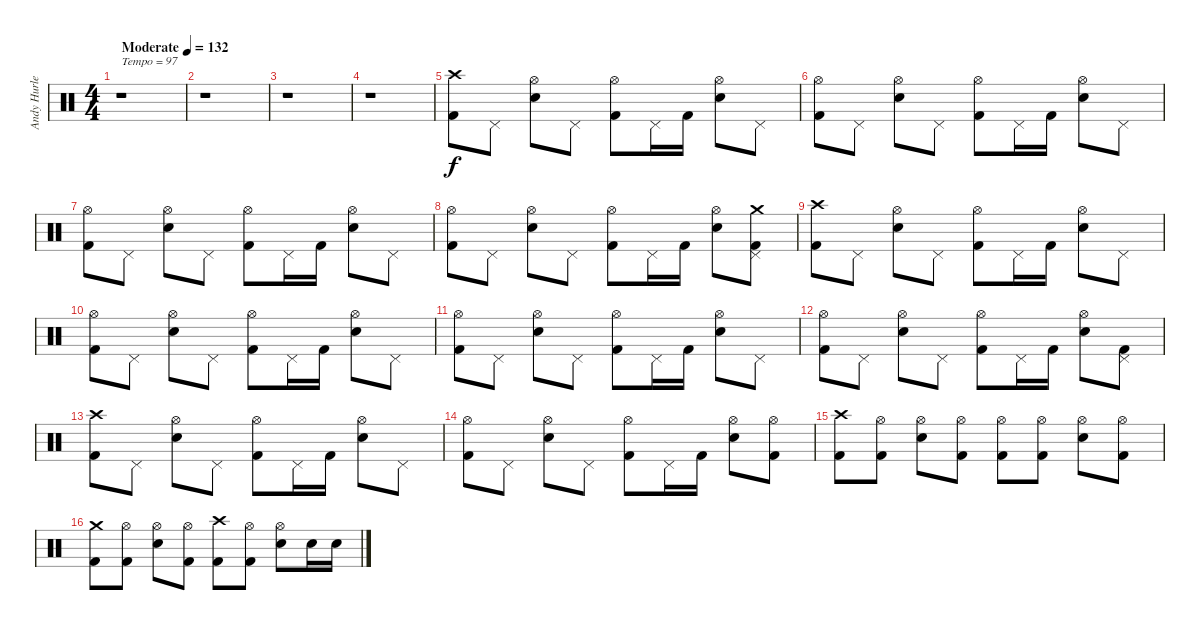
\track ("Andy Hurley" "Andy Hurle") {instrument percussion}
\staff {score}
\articulation defaults
\ts (4 4)
\tempo (132 "Moderate")
\tempo 97
\tempo (132 "Moderate")
\clef neutral
\ks c
r.1{txt "Tempo = 97" dy f} |
r.1 |
r.1 |
r.1 |
("Crash high (hit)" "Kick (hit) 2").8 "Pedal Hi-Hat (hit)".8 ("Hi-Hat (open)" "Snare (hit) 2").8 "Pedal Hi-Hat (hit)".8 ("Hi-Hat (open)" "Kick (hit) 2").8 "Pedal Hi-Hat (hit)".16 "Kick (hit) 2".16 ("Hi-Hat (open)" "Snare (hit) 2").8 "Pedal Hi-Hat (hit)".8 |
("Hi-Hat (open)" "Kick (hit) 2").8 "Pedal Hi-Hat (hit)".8 ("Hi-Hat (open)" "Snare (hit) 2").8 "Pedal Hi-Hat (hit)".8 ("Hi-Hat (open)" "Kick (hit) 2").8 "Pedal Hi-Hat (hit)".16 "Kick (hit) 2".16 ("Hi-Hat (open)" "Snare (hit) 2").8 "Pedal Hi-Hat (hit)".8 |
("Hi-Hat (open)" "Kick (hit) 2").8 "Pedal Hi-Hat (hit)".8 ("Hi-Hat (open)" "Snare (hit) 2").8 "Pedal Hi-Hat (hit)".8 ("Hi-Hat (open)" "Kick (hit) 2").8 "Pedal Hi-Hat (hit)".16 "Kick (hit) 2".16 ("Hi-Hat (open)" "Snare (hit) 2").8 "Pedal Hi-Hat (hit)".8 |
("Hi-Hat (open)" "Kick (hit) 2").8 "Pedal Hi-Hat (hit)".8 ("Hi-Hat (open)" "Snare (hit) 2").8 "Pedal Hi-Hat (hit)".8 ("Hi-Hat (open)" "Kick (hit) 2").8 "Pedal Hi-Hat (hit)".16 "Kick (hit) 2".16 ("Hi-Hat (open)" "Snare (hit) 2").8 ("Crash medium (hit)" "Pedal Hi-Hat (hit)" "Kick (hit) 2").8 |
("Crash high (hit)" "Kick (hit) 2").8 "Pedal Hi-Hat (hit)".8 ("Hi-Hat (open)" "Snare (hit) 2").8 "Pedal Hi-Hat (hit)".8 ("Hi-Hat (open)" "Kick (hit) 2").8 "Pedal Hi-Hat (hit)".16 "Kick (hit) 2".16 ("Hi-Hat (open)" "Snare (hit) 2").8 "Pedal Hi-Hat (hit)".8 |
("Hi-Hat (open)" "Kick (hit) 2").8 "Pedal Hi-Hat (hit)".8 ("Hi-Hat (open)" "Snare (hit) 2").8 "Pedal Hi-Hat (hit)".8 ("Hi-Hat (open)" "Kick (hit) 2").8 "Pedal Hi-Hat (hit)".16 "Kick (hit) 2".16 ("Hi-Hat (open)" "Snare (hit) 2").8 "Pedal Hi-Hat (hit)".8 |
("Hi-Hat (open)" "Kick (hit) 2").8 "Pedal Hi-Hat (hit)".8 ("Hi-Hat (open)" "Snare (hit) 2").8 "Pedal Hi-Hat (hit)".8 ("Hi-Hat (open)" "Kick (hit) 2").8 "Pedal Hi-Hat (hit)".16 "Kick (hit) 2".16 ("Hi-Hat (open)" "Snare (hit) 2").8 "Pedal Hi-Hat (hit)".8 |
("Hi-Hat (open)" "Kick (hit) 2").8 "Pedal Hi-Hat (hit)".8 ("Hi-Hat (open)" "Snare (hit) 2").8 "Pedal Hi-Hat (hit)".8 ("Hi-Hat (open)" "Kick (hit) 2").8 "Pedal Hi-Hat (hit)".16 "Kick (hit) 2".16 ("Hi-Hat (open)" "Snare (hit) 2").8 ("Pedal Hi-Hat (hit)" "Kick (hit) 2").8 |
("Crash high (hit)" "Kick (hit) 2").8 "Pedal Hi-Hat (hit)".8 ("Hi-Hat (open)" "Snare (hit) 2").8 "Pedal Hi-Hat (hit)".8 ("Hi-Hat (open)" "Kick (hit) 2").8 "Pedal Hi-Hat (hit)".16 "Kick (hit) 2".16 ("Hi-Hat (open)" "Snare (hit) 2").8 "Pedal Hi-Hat (hit)".8 |
("Hi-Hat (open)" "Kick (hit) 2").8 "Pedal Hi-Hat (hit)".8 ("Hi-Hat (open)" "Snare (hit) 2").8 "Pedal Hi-Hat (hit)".8 ("Hi-Hat (open)" "Kick (hit) 2").8 "Pedal Hi-Hat (hit)".16 "Kick (hit) 2".16 ("Hi-Hat (open)" "Snare (hit) 2").8 ("Hi-Hat (open)" "Kick (hit) 2").8 |
("Crash high (hit)" "Kick (hit) 2").8 ("Hi-Hat (open)" "Kick (hit) 2").8 ("Hi-Hat (open)" "Snare (hit) 2").8 ("Hi-Hat (open)" "Kick (hit) 2").8 ("Hi-Hat (open)" "Kick (hit) 2").8 ("Hi-Hat (open)" "Kick (hit) 2").8 ("Hi-Hat (open)" "Snare (hit) 2").8 ("Hi-Hat (open)" "Kick (hit) 2").8 |
("Crash medium (hit)" "Kick (hit) 2").8 ("Hi-Hat (open)" "Kick (hit) 2").8 ("Hi-Hat (open)" "Snare (hit) 2").8 ("Hi-Hat (open)" "Kick (hit) 2").8 ("Crash high (hit)" "Kick (hit) 2").8 ("Hi-Hat (open)" "Kick (hit) 2").8 ("Hi-Hat (open)" "Snare (hit) 2").8 "Snare (hit) 2".16 "Snare (hit) 2".16
